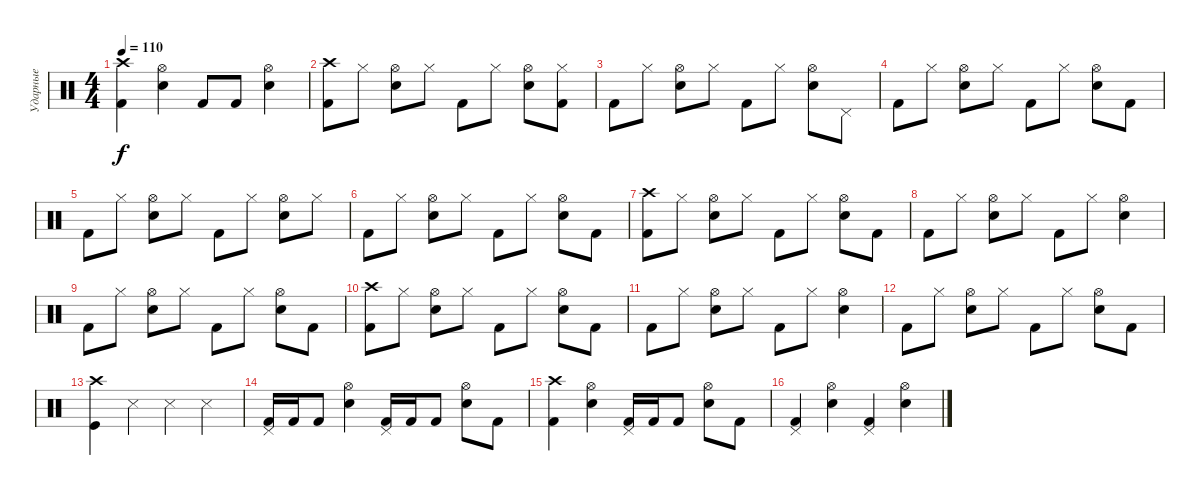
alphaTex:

\track ("Ударные" "Ударные") {instrument percussion}
\staff {score}
\articulation defaults
\ts (4 4)
\tempo 110
\clef neutral
\ks c
("Kick (hit) 2" "Crash high (hit)").4{dy f} ("Snare (hit) 2" "Hi-Hat (open)").4 "Kick (hit) 2".8 "Kick (hit) 2".8 ("Snare (hit) 2" "Hi-Hat (open)").4 |
("Kick (hit) 2" "Crash high (hit)").8 "Hi-Hat (closed)".8 ("Snare (hit) 2" "Hi-Hat (open)").8 "Hi-Hat (closed)".8 "Kick (hit) 2".8 "Hi-Hat (closed)".8 ("Snare (hit) 2" "Hi-Hat (open)").8 ("Kick (hit) 2" "Hi-Hat (closed)").8 |
"Kick (hit) 2".8 "Hi-Hat (closed)".8 ("Snare (hit) 2" "Hi-Hat (open)").8 "Hi-Hat (closed)".8 "Kick (hit) 2".8 "Hi-Hat (closed)".8 ("Snare (hit) 2" "Hi-Hat (open)").8 "Pedal Hi-Hat (hit)".8 |
"Kick (hit) 2".8 "Hi-Hat (closed)".8 ("Snare (hit) 2" "Hi-Hat (open)").8 "Hi-Hat (closed)".8 "Kick (hit) 2".8 "Hi-Hat (closed)".8 ("Snare (hit) 2" "Hi-Hat (open)").8 "Kick (hit) 2".8 |
"Kick (hit) 2".8 "Hi-Hat (closed)".8 ("Snare (hit) 2" "Hi-Hat (open)").8 "Hi-Hat (closed)".8 "Kick (hit) 2".8 "Hi-Hat (closed)".8 ("Snare (hit) 2" "Hi-Hat (open)").8 "Hi-Hat (closed)".8 |
"Kick (hit) 2".8 "Hi-Hat (closed)".8 ("Snare (hit) 2" "Hi-Hat (open)").8 "Hi-Hat (closed)".8 "Kick (hit) 2".8 "Hi-Hat (closed)".8 ("Snare (hit) 2" "Hi-Hat (open)").8 "Kick (hit) 2".8 |
("Kick (hit) 2" "Crash high (hit)").8 "Hi-Hat (closed)".8 ("Snare (hit) 2" "Hi-Hat (open)").8 "Hi-Hat (closed)".8 "Kick (hit) 2".8 "Hi-Hat (closed)".8 ("Snare (hit) 2" "Hi-Hat (open)").8 "Kick (hit) 2".8 |
"Kick (hit) 2".8 "Hi-Hat (closed)".8 ("Snare (hit) 2" "Hi-Hat (open)").8 "Hi-Hat (closed)".8 "Kick (hit) 2".8 "Hi-Hat (closed)".8 ("Snare (hit) 2" "Hi-Hat (open)").4 |
"Kick (hit) 2".8 "Hi-Hat (closed)".8 ("Snare (hit) 2" "Hi-Hat (open)").8 "Hi-Hat (closed)".8 "Kick (hit) 2".8 "Hi-Hat (closed)".8 ("Snare (hit) 2" "Hi-Hat (open)").8 "Kick (hit) 2".8 |
("Kick (hit) 2" "Crash high (hit)").8 "Hi-Hat (closed)".8 ("Snare (hit) 2" "Hi-Hat (open)").8 "Hi-Hat (closed)".8 "Kick (hit) 2".8 "Hi-Hat (closed)".8 ("Snare (hit) 2" "Hi-Hat (open)").8 "Kick (hit) 2".8 |
"Kick (hit) 2".8 "Hi-Hat (closed)".8 ("Snare (hit) 2" "Hi-Hat (open)").8 "Hi-Hat (closed)".8 "Kick (hit) 2".8 "Hi-Hat (closed)".8 ("Snare (hit) 2" "Hi-Hat (open)").4 |
"Kick (hit) 2".8 "Hi-Hat (closed)".8 ("Snare (hit) 2" "Hi-Hat (open)").8 "Hi-Hat (closed)".8 "Kick (hit) 2".8 "Hi-Hat (closed)".8 ("Snare (hit) 2" "Hi-Hat (open)").8 "Kick (hit) 2".8 |
("Kick (hit)" "Crash high (hit)").4 "Metronome (hit)".4 "Metronome (hit)".4 "Metronome (hit)".4 |
("Kick (hit) 2" "Pedal Hi-Hat (hit)").16 "Kick (hit) 2".16 "Kick (hit) 2".8 ("Snare (hit) 2" "Hi-Hat (open)").4 ("Kick (hit) 2" "Pedal Hi-Hat (hit)").16 "Kick (hit) 2".16 "Kick (hit) 2".8 ("Snare (hit) 2" "Hi-Hat (open)").8 "Kick (hit) 2".8 |
("Kick (hit) 2" "Crash high (hit)").4 ("Snare (hit) 2" "Hi-Hat (open)").4 ("Kick (hit) 2" "Pedal Hi-Hat (hit)").16 "Kick (hit) 2".16 "Kick (hit) 2".8 ("Snare (hit) 2" "Hi-Hat (open)").8 "Kick (hit) 2".8 |
("Kick (hit) 2" "Pedal Hi-Hat (hit)").4 ("Snare (hit) 2" "Hi-Hat (open)").4 ("Kick (hit) 2" "Pedal Hi-Hat (hit)").4 ("Snare (hit) 2" "Hi-Hat (open)").4
